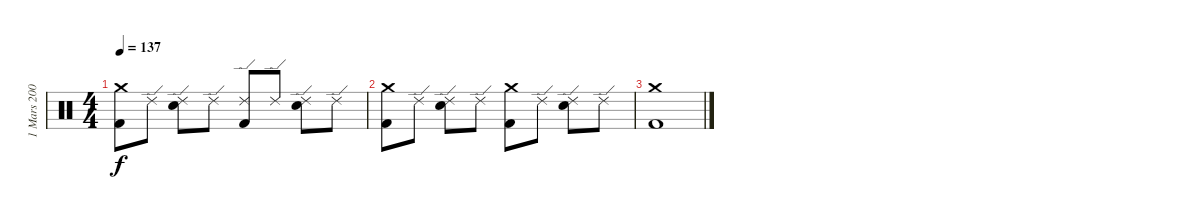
\track ("1 Mars 2004" "1 Mars 200") {instrument percussion}
\staff {score}
\articulation defaults
\ts (4 4)
\tempo 137
\clef neutral
\ks c
("Crash medium (hit)" "Kick (hit) 2").8{dy f} "Ride (edge) 2".8 ("Ride (edge) 2" "Electric Snare (hit)").8 "Ride (edge) 2".8 ("Ride (edge) 2" "Kick (hit) 2").8 "Ride (edge) 2".8 ("Ride (edge) 2" "Electric Snare (hit)").8 "Ride (edge) 2".8 |
("Crash medium (hit)" "Kick (hit) 2").8 "Ride (edge) 2".8 ("Ride (edge) 2" "Electric Snare (hit)").8 "Ride (edge) 2".8 ("Crash medium (hit)" "Kick (hit) 2").8 "Ride (edge) 2".8 ("Ride (edge) 2" "Electric Snare (hit)").8 "Ride (edge) 2".8 |
("Crash medium (hit)" "Kick (hit) 2").1
